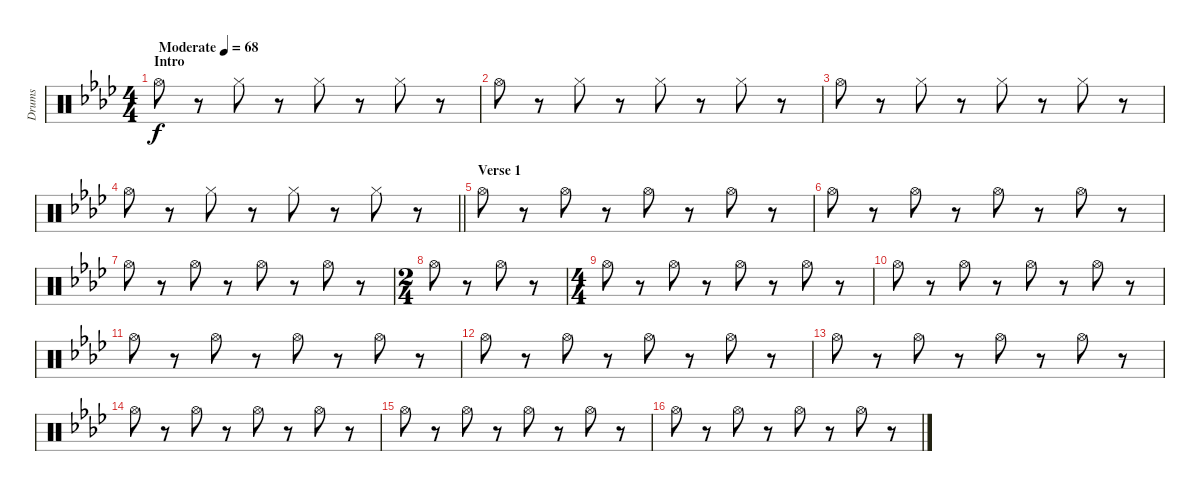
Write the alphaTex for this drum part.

\track ("Drums" "Drums") {instrument percussion}
\staff {score}
\articulation defaults
\ts (4 4)
\section ("" "Intro")
\tempo (68 "Moderate")
\clef neutral
\ks ab "Hi-Hat (open)".8{dy f}
r.8 "Hi-Hat (closed)".8 r.8 "Hi-Hat (closed)".8 r.8 "Hi-Hat (closed)".8 r.8 |
"Hi-Hat (open)".8 r.8 "Hi-Hat (closed)".8 r.8 "Hi-Hat (closed)".8 r.8 "Hi-Hat (closed)".8 r.8 |
"Hi-Hat (open)".8 r.8 "Hi-Hat (closed)".8 r.8 "Hi-Hat (closed)".8 r.8 "Hi-Hat (closed)".8 r.8 |
\barLineRight lightlight "Hi-Hat (open)".8
r.8 "Hi-Hat (closed)".8 r.8 "Hi-Hat (closed)".8 r.8 "Hi-Hat (closed)".8 r.8 |
\section ("" "Verse 1")
"Hi-Hat (open)".8 r.8 "Hi-Hat (open)".8 r.8 "Hi-Hat (open)".8 r.8 "Hi-Hat (open)".8 r.8 |
"Hi-Hat (open)".8 r.8 "Hi-Hat (open)".8 r.8 "Hi-Hat (open)".8 r.8 "Hi-Hat (open)".8 r.8 |
"Hi-Hat (open)".8 r.8 "Hi-Hat (open)".8 r.8 "Hi-Hat (open)".8 r.8 "Hi-Hat (open)".8 r.8 |
\ts (2 4)
"Hi-Hat (open)".8 r.8 "Hi-Hat (open)".8 r.8 |
\ts (4 4)
"Hi-Hat (open)".8 r.8 "Hi-Hat (open)".8 r.8 "Hi-Hat (open)".8 r.8 "Hi-Hat (open)".8 r.8 |
"Hi-Hat (open)".8 r.8 "Hi-Hat (open)".8 r.8 "Hi-Hat (open)".8 r.8 "Hi-Hat (open)".8 r.8 |
"Hi-Hat (open)".8 r.8 "Hi-Hat (open)".8 r.8 "Hi-Hat (open)".8 r.8 "Hi-Hat (open)".8 r.8 |
"Hi-Hat (open)".8 r.8 "Hi-Hat (open)".8 r.8 "Hi-Hat (open)".8 r.8 "Hi-Hat (open)".8 r.8 |
"Hi-Hat (open)".8 r.8 "Hi-Hat (open)".8 r.8 "Hi-Hat (open)".8 r.8 "Hi-Hat (open)".8 r.8 |
"Hi-Hat (open)".8 r.8 "Hi-Hat (open)".8 r.8 "Hi-Hat (open)".8 r.8 "Hi-Hat (open)".8 r.8 |
"Hi-Hat (open)".8 r.8 "Hi-Hat (open)".8 r.8 "Hi-Hat (open)".8 r.8 "Hi-Hat (open)".8 r.8 |
"Hi-Hat (open)".8 r.8 "Hi-Hat (open)".8 r.8 "Hi-Hat (open)".8 r.8 "Hi-Hat (open)".8 r.8
